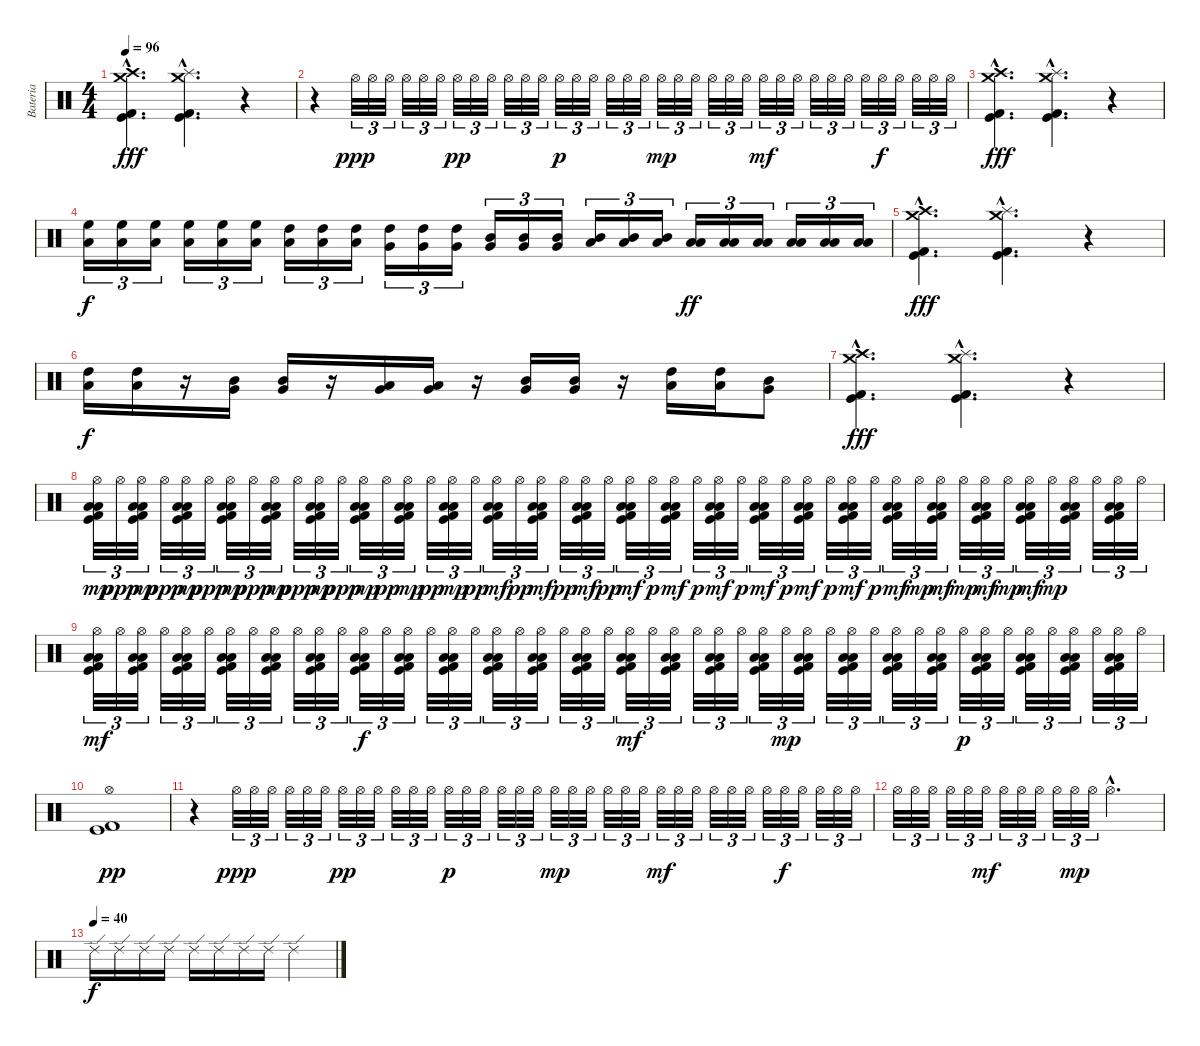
\track ("Bateria" "Bateria") {instrument percussion}
\staff {score}
\articulation defaults
\ts (4 4)
\tempo 96
\clef neutral
\ks c
("Crash high (hit)"{hac} "Crash medium (hit)"{hac} "Kick (hit) 2"{hac} "Kick (hit)"{hac}).4{d dy fff} ("Crash medium (hit)"{hac} "Splash (hit)"{hac} "Kick (hit) 2"{hac} "Kick (hit)"{hac}).4{d} r.4 |
r.4 "Hi-Hat (open)".32{tu (3 2) dy ppp} "Hi-Hat (open)".32{tu (3 2)} "Hi-Hat (open)".32{tu (3 2)} "Hi-Hat (open)".32{tu (3 2)} "Hi-Hat (open)".32{tu (3 2)} "Hi-Hat (open)".32{tu (3 2)} "Hi-Hat (open)".32{tu (3 2) dy pp} "Hi-Hat (open)".32{tu (3 2)} "Hi-Hat (open)".32{tu (3 2)} "Hi-Hat (open)".32{tu (3 2)} "Hi-Hat (open)".32{tu (3 2)} "Hi-Hat (open)".32{tu (3 2)} "Hi-Hat (open)".32{tu (3 2) dy p} "Hi-Hat (open)".32{tu (3 2)} "Hi-Hat (open)".32{tu (3 2)} "Hi-Hat (open)".32{tu (3 2)} "Hi-Hat (open)".32{tu (3 2)} "Hi-Hat (open)".32{tu (3 2)} "Hi-Hat (open)".32{tu (3 2) dy mp} "Hi-Hat (open)".32{tu (3 2)} "Hi-Hat (open)".32{tu (3 2)} "Hi-Hat (open)".32{tu (3 2)} "Hi-Hat (open)".32{tu (3 2)} "Hi-Hat (open)".32{tu (3 2)} "Hi-Hat (open)".32{tu (3 2) dy mf} "Hi-Hat (open)".32{tu (3 2)} "Hi-Hat (open)".32{tu (3 2)} "Hi-Hat (open)".32{tu (3 2)} "Hi-Hat (open)".32{tu (3 2)} "Hi-Hat (open)".32{tu (3 2)} "Hi-Hat (open)".32{tu (3 2)} "Hi-Hat (open)".32{tu (3 2) dy f} "Hi-Hat (open)".32{tu (3 2)} "Hi-Hat (open)".32{tu (3 2)} "Hi-Hat (open)".32{tu (3 2)} "Hi-Hat (open)".32{tu (3 2)} |
("Crash high (hit)"{hac} "Crash medium (hit)"{hac} "Kick (hit) 2"{hac} "Kick (hit)"{hac}).4{d dy fff} ("Crash medium (hit)"{hac} "Splash (hit)"{hac} "Kick (hit) 2"{hac} "Kick (hit)"{hac}).4{d} r.4 |
("High Floor Tom (hit)" "Low Tom (hit)").16{tu (3 2) dy f} ("High Floor Tom (hit)" "Low Tom (hit)").16{tu (3 2)} ("High Floor Tom (hit)" "Low Tom (hit)").16{tu (3 2)} ("High Floor Tom (hit)" "Low Tom (hit)").16{tu (3 2)} ("High Floor Tom (hit)" "Low Tom (hit)").16{tu (3 2)} ("High Floor Tom (hit)" "Low Tom (hit)").16{tu (3 2)} ("High Tom (hit)" "Low Tom (hit)").16{tu (3 2)} ("High Tom (hit)" "Low Tom (hit)").16{tu (3 2)} ("High Tom (hit)" "Low Tom (hit)").16{tu (3 2)} ("High Tom (hit)" "Very Low Tom (hit)").16{tu (3 2)} ("High Tom (hit)" "Very Low Tom (hit)").16{tu (3 2)} ("High Tom (hit)" "Very Low Tom (hit)").16{tu (3 2)} ("Mid Tom (hit)" "Very Low Tom (hit)").16{tu (3 2)} ("Mid Tom (hit)" "Very Low Tom (hit)").16{tu (3 2)} ("Mid Tom (hit)" "Very Low Tom (hit)").16{tu (3 2)} ("Mid Tom (hit)" "Low Floor Tom (hit)").16{tu (3 2)} ("Mid Tom (hit)" "Low Floor Tom (hit)").16{tu (3 2)} ("Mid Tom (hit)" "Low Floor Tom (hit)").16{tu (3 2)} ("Low Tom (hit)" "Low Floor Tom (hit)").16{tu (3 2) dy ff} ("Low Tom (hit)" "Low Floor Tom (hit)").16{tu (3 2)} ("Low Tom (hit)" "Low Floor Tom (hit)").16{tu (3 2)} ("Low Tom (hit)" "Low Floor Tom (hit)").16{tu (3 2)} ("Low Tom (hit)" "Low Floor Tom (hit)").16{tu (3 2)} ("Low Tom (hit)" "Low Floor Tom (hit)").16{tu (3 2)} |
("Crash high (hit)"{hac} "Crash medium (hit)"{hac} "Kick (hit) 2"{hac} "Kick (hit)"{hac}).4{d dy fff} ("Crash medium (hit)"{hac} "Splash (hit)"{hac} "Kick (hit) 2"{hac} "Kick (hit)"{hac}).4{d} r.4 |
("High Tom (hit)" "Low Tom (hit)").16{dy f} ("High Tom (hit)" "Low Tom (hit)").16 r.16 ("Mid Tom (hit)" "Very Low Tom (hit)").16 ("Mid Tom (hit)" "Very Low Tom (hit)").16 r.16 ("Low Tom (hit)" "Very Low Tom (hit)").16 ("Low Tom (hit)" "Very Low Tom (hit)").16 r.16 ("Mid Tom (hit)" "Very Low Tom (hit)").16 ("Mid Tom (hit)" "Very Low Tom (hit)").16 r.16 ("High Tom (hit)" "Low Tom (hit)").16 ("High Tom (hit)" "Low Tom (hit)").16 ("Mid Tom (hit)" "Very Low Tom (hit)").8 |
("Crash high (hit)"{hac} "Crash medium (hit)"{hac} "Kick (hit) 2"{hac} "Kick (hit)"{hac}).4{d dy fff} ("Crash medium (hit)"{hac} "Splash (hit)"{hac} "Kick (hit) 2"{hac} "Kick (hit)"{hac}).4{d} r.4 |
("Hi-Hat (open)" "Low Tom (hit)" "Low Floor Tom (hit)" "Kick (hit) 2" "Kick (hit)").32{tu (3 2) dy mp} "Hi-Hat (open)".32{tu (3 2) dy ppp} ("Hi-Hat (open)" "Low Tom (hit)" "Low Floor Tom (hit)" "Kick (hit) 2" "Kick (hit)").32{tu (3 2) dy mp} "Hi-Hat (open)".32{tu (3 2) dy ppp} ("Hi-Hat (open)" "Low Tom (hit)" "Low Floor Tom (hit)" "Kick (hit) 2" "Kick (hit)").32{tu (3 2) dy mp} "Hi-Hat (open)".32{tu (3 2) dy ppp} ("Hi-Hat (open)" "Low Tom (hit)" "Low Floor Tom (hit)" "Kick (hit) 2" "Kick (hit)").32{tu (3 2) dy mp} "Hi-Hat (open)".32{tu (3 2) dy ppp} ("Hi-Hat (open)" "Low Tom (hit)" "Low Floor Tom (hit)" "Kick (hit) 2" "Kick (hit)").32{tu (3 2) dy mp} "Hi-Hat (open)".32{tu (3 2) dy ppp} ("Hi-Hat (open)" "Low Tom (hit)" "Low Floor Tom (hit)" "Kick (hit) 2" "Kick (hit)").32{tu (3 2) dy mp} "Hi-Hat (open)".32{tu (3 2) dy ppp} ("Hi-Hat (open)" "Low Tom (hit)" "Low Floor Tom (hit)" "Kick (hit) 2" "Kick (hit)").32{tu (3 2) dy mp} "Hi-Hat (open)".32{tu (3 2) dy pp} ("Hi-Hat (open)" "Low Tom (hit)" "Low Floor Tom (hit)" "Kick (hit) 2" "Kick (hit)").32{tu (3 2) dy mp} "Hi-Hat (open)".32{tu (3 2) dy pp} ("Hi-Hat (open)" "Low Tom (hit)" "Low Floor Tom (hit)" "Kick (hit) 2" "Kick (hit)").32{tu (3 2) dy mp} "Hi-Hat (open)".32{tu (3 2) dy pp} ("Hi-Hat (open)" "Low Tom (hit)" "Low Floor Tom (hit)" "Kick (hit) 2" "Kick (hit)").32{tu (3 2) dy mf} "Hi-Hat (open)".32{tu (3 2) dy pp} ("Hi-Hat (open)" "Low Tom (hit)" "Low Floor Tom (hit)" "Kick (hit) 2" "Kick (hit)").32{tu (3 2) dy mf} "Hi-Hat (open)".32{tu (3 2) dy pp} ("Hi-Hat (open)" "Low Tom (hit)" "Low Floor Tom (hit)" "Kick (hit) 2" "Kick (hit)").32{tu (3 2) dy mf} "Hi-Hat (open)".32{tu (3 2) dy pp} ("Hi-Hat (open)" "Low Tom (hit)" "Low Floor Tom (hit)" "Kick (hit) 2" "Kick (hit)").32{tu (3 2) dy mf} "Hi-Hat (open)".32{tu (3 2) dy p} ("Hi-Hat (open)" "Low Tom (hit)" "Low Floor Tom (hit)" "Kick (hit) 2" "Kick (hit)").32{tu (3 2) dy mf} "Hi-Hat (open)".32{tu (3 2) dy p} ("Hi-Hat (open)" "Low Tom (hit)" "Low Floor Tom (hit)" "Kick (hit) 2" "Kick (hit)").32{tu (3 2) dy mf} "Hi-Hat (open)".32{tu (3 2) dy p} ("Hi-Hat (open)" "Low Tom (hit)" "Low Floor Tom (hit)" "Kick (hit) 2" "Kick (hit)").32{tu (3 2) dy mf} "Hi-Hat (open)".32{tu (3 2) dy p} ("Hi-Hat (open)" "Low Tom (hit)" "Low Floor Tom (hit)" "Kick (hit) 2" "Kick (hit)").32{tu (3 2) dy mf} "Hi-Hat (open)".32{tu (3 2) dy p} ("Hi-Hat (open)" "Low Tom (hit)" "Low Floor Tom (hit)" "Kick (hit) 2" "Kick (hit)").32{tu (3 2) dy mf} "Hi-Hat (open)".32{tu (3 2) dy p} ("Hi-Hat (open)" "Low Tom (hit)" "Low Floor Tom (hit)" "Kick (hit) 2" "Kick (hit)").32{tu (3 2) dy mf} "Hi-Hat (open)".32{tu (3 2) dy mp} ("Hi-Hat (open)" "Low Tom (hit)" "Low Floor Tom (hit)" "Kick (hit) 2" "Kick (hit)").32{tu (3 2) dy mf} "Hi-Hat (open)".32{tu (3 2) dy mp} ("Hi-Hat (open)" "Low Tom (hit)" "Low Floor Tom (hit)" "Kick (hit) 2" "Kick (hit)").32{tu (3 2) dy mf} "Hi-Hat (open)".32{tu (3 2) dy mp} ("Hi-Hat (open)" "Low Tom (hit)" "Low Floor Tom (hit)" "Kick (hit) 2" "Kick (hit)").32{tu (3 2) dy mf} "Hi-Hat (open)".32{tu (3 2) dy mp} ("Hi-Hat (open)" "Low Tom (hit)" "Low Floor Tom (hit)" "Kick (hit) 2" "Kick (hit)").32{tu (3 2)} "Hi-Hat (open)".32{tu (3 2)} ("Hi-Hat (open)" "Low Tom (hit)" "Low Floor Tom (hit)" "Kick (hit) 2" "Kick (hit)").32{tu (3 2)} "Hi-Hat (open)".32{tu (3 2)} |
("Hi-Hat (open)" "Low Tom (hit)" "Low Floor Tom (hit)" "Kick (hit) 2" "Kick (hit)").32{tu (3 2) dy mf} "Hi-Hat (open)".32{tu (3 2)} ("Hi-Hat (open)" "Low Tom (hit)" "Low Floor Tom (hit)" "Kick (hit) 2" "Kick (hit)").32{tu (3 2)} "Hi-Hat (open)".32{tu (3 2)} ("Hi-Hat (open)" "Low Tom (hit)" "Low Floor Tom (hit)" "Kick (hit) 2" "Kick (hit)").32{tu (3 2)} "Hi-Hat (open)".32{tu (3 2)} ("Hi-Hat (open)" "Low Tom (hit)" "Low Floor Tom (hit)" "Kick (hit) 2" "Kick (hit)").32{tu (3 2)} "Hi-Hat (open)".32{tu (3 2)} ("Hi-Hat (open)" "Low Tom (hit)" "Low Floor Tom (hit)" "Kick (hit) 2" "Kick (hit)").32{tu (3 2)} "Hi-Hat (open)".32{tu (3 2)} ("Hi-Hat (open)" "Low Tom (hit)" "Low Floor Tom (hit)" "Kick (hit) 2" "Kick (hit)").32{tu (3 2)} "Hi-Hat (open)".32{tu (3 2)} ("Hi-Hat (open)" "Low Tom (hit)" "Low Floor Tom (hit)" "Kick (hit) 2" "Kick (hit)").32{tu (3 2) dy f} "Hi-Hat (open)".32{tu (3 2)} ("Hi-Hat (open)" "Low Tom (hit)" "Low Floor Tom (hit)" "Kick (hit) 2" "Kick (hit)").32{tu (3 2)} "Hi-Hat (open)".32{tu (3 2)} ("Hi-Hat (open)" "Low Tom (hit)" "Low Floor Tom (hit)" "Kick (hit) 2" "Kick (hit)").32{tu (3 2)} "Hi-Hat (open)".32{tu (3 2)} ("Hi-Hat (open)" "Low Tom (hit)" "Low Floor Tom (hit)" "Kick (hit) 2" "Kick (hit)").32{tu (3 2)} "Hi-Hat (open)".32{tu (3 2)} ("Hi-Hat (open)" "Low Tom (hit)" "Low Floor Tom (hit)" "Kick (hit) 2" "Kick (hit)").32{tu (3 2)} "Hi-Hat (open)".32{tu (3 2)} ("Hi-Hat (open)" "Low Tom (hit)" "Low Floor Tom (hit)" "Kick (hit) 2" "Kick (hit)").32{tu (3 2)} "Hi-Hat (open)".32{tu (3 2)} ("Hi-Hat (open)" "Low Tom (hit)" "Low Floor Tom (hit)" "Kick (hit) 2" "Kick (hit)").32{tu (3 2) dy mf} "Hi-Hat (open)".32{tu (3 2)} ("Hi-Hat (open)" "Low Tom (hit)" "Low Floor Tom (hit)" "Kick (hit) 2" "Kick (hit)").32{tu (3 2)} "Hi-Hat (open)".32{tu (3 2)} ("Hi-Hat (open)" "Low Tom (hit)" "Low Floor Tom (hit)" "Kick (hit) 2" "Kick (hit)").32{tu (3 2)} "Hi-Hat (open)".32{tu (3 2)} ("Hi-Hat (open)" "Low Tom (hit)" "Low Floor Tom (hit)" "Kick (hit) 2" "Kick (hit)").32{tu (3 2)} "Hi-Hat (open)".32{tu (3 2) dy mp} ("Hi-Hat (open)" "Low Tom (hit)" "Low Floor Tom (hit)" "Kick (hit) 2" "Kick (hit)").32{tu (3 2)} "Hi-Hat (open)".32{tu (3 2)} ("Hi-Hat (open)" "Low Tom (hit)" "Low Floor Tom (hit)" "Kick (hit) 2" "Kick (hit)").32{tu (3 2)} "Hi-Hat (open)".32{tu (3 2)} ("Hi-Hat (open)" "Low Tom (hit)" "Low Floor Tom (hit)" "Kick (hit) 2" "Kick (hit)").32{tu (3 2)} "Hi-Hat (open)".32{tu (3 2)} ("Hi-Hat (open)" "Low Tom (hit)" "Low Floor Tom (hit)" "Kick (hit) 2" "Kick (hit)").32{tu (3 2)} "Hi-Hat (open)".32{tu (3 2) dy p} ("Hi-Hat (open)" "Low Tom (hit)" "Low Floor Tom (hit)" "Kick (hit) 2" "Kick (hit)").32{tu (3 2)} "Hi-Hat (open)".32{tu (3 2)} ("Hi-Hat (open)" "Low Tom (hit)" "Low Floor Tom (hit)" "Kick (hit) 2" "Kick (hit)").32{tu (3 2)} "Hi-Hat (open)".32{tu (3 2)} ("Hi-Hat (open)" "Low Tom (hit)" "Low Floor Tom (hit)" "Kick (hit) 2" "Kick (hit)").32{tu (3 2)} "Hi-Hat (open)".32{tu (3 2)} ("Hi-Hat (open)" "Low Tom (hit)" "Low Floor Tom (hit)" "Kick (hit) 2" "Kick (hit)").32{tu (3 2)} "Hi-Hat (open)".32{tu (3 2)} |
("Hi-Hat (open)" "Kick (hit) 2" "Kick (hit)").1{dy pp} |
r.4 "Hi-Hat (open)".32{tu (3 2) dy ppp} "Hi-Hat (open)".32{tu (3 2)} "Hi-Hat (open)".32{tu (3 2)} "Hi-Hat (open)".32{tu (3 2)} "Hi-Hat (open)".32{tu (3 2)} "Hi-Hat (open)".32{tu (3 2)} "Hi-Hat (open)".32{tu (3 2) dy pp} "Hi-Hat (open)".32{tu (3 2)} "Hi-Hat (open)".32{tu (3 2)} "Hi-Hat (open)".32{tu (3 2)} "Hi-Hat (open)".32{tu (3 2)} "Hi-Hat (open)".32{tu (3 2)} "Hi-Hat (open)".32{tu (3 2) dy p} "Hi-Hat (open)".32{tu (3 2)} "Hi-Hat (open)".32{tu (3 2)} "Hi-Hat (open)".32{tu (3 2)} "Hi-Hat (open)".32{tu (3 2)} "Hi-Hat (open)".32{tu (3 2)} "Hi-Hat (open)".32{tu (3 2) dy mp} "Hi-Hat (open)".32{tu (3 2)} "Hi-Hat (open)".32{tu (3 2)} "Hi-Hat (open)".32{tu (3 2)} "Hi-Hat (open)".32{tu (3 2)} "Hi-Hat (open)".32{tu (3 2)} "Hi-Hat (open)".32{tu (3 2) dy mf} "Hi-Hat (open)".32{tu (3 2)} "Hi-Hat (open)".32{tu (3 2)} "Hi-Hat (open)".32{tu (3 2)} "Hi-Hat (open)".32{tu (3 2)} "Hi-Hat (open)".32{tu (3 2)} "Hi-Hat (open)".32{tu (3 2)} "Hi-Hat (open)".32{tu (3 2) dy f} "Hi-Hat (open)".32{tu (3 2)} "Hi-Hat (open)".32{tu (3 2)} "Hi-Hat (open)".32{tu (3 2)} "Hi-Hat (open)".32{tu (3 2)} |
"Hi-Hat (open)".32{tu (3 2)} "Hi-Hat (open)".32{tu (3 2)} "Hi-Hat (open)".32{tu (3 2)} "Hi-Hat (open)".32{tu (3 2)} "Hi-Hat (open)".32{tu (3 2)} "Hi-Hat (open)".32{tu (3 2) dy mf} "Hi-Hat (open)".32{tu (3 2)} "Hi-Hat (open)".32{tu (3 2)} "Hi-Hat (open)".32{tu (3 2)} "Hi-Hat (open)".32{tu (3 2)} "Hi-Hat (open)".32{tu (3 2) dy mp} "Hi-Hat (open)".32{tu (3 2)} "Hi-Hat (open)"{hac}.2{d} |
\tempo (40)
"Ride (edge) 2".16{dy f} "Ride (edge) 2".16 "Ride (edge) 2".16 "Ride (edge) 2".16 "Ride (edge) 2".16 "Ride (edge) 2".16 "Ride (edge) 2".16 "Ride (edge) 2".16 "Ride (edge) 2".2
